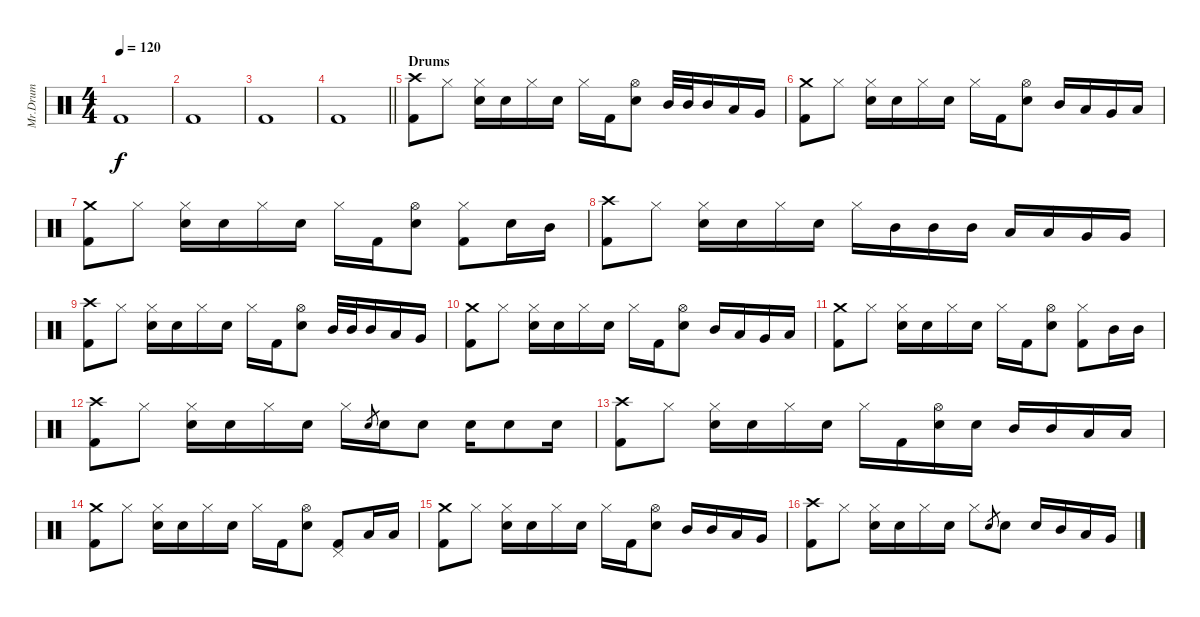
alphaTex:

\track ("Mr.Drum" "Mr.Drum") {instrument percussion}
\staff {score}
\articulation defaults
\ts (4 4)
\tempo 120
\clef neutral
\ks c "Kick (hit) 2".1{dy f}
|
"Kick (hit) 2".1 |
"Kick (hit) 2".1 |
\barLineRight lightlight "Kick (hit) 2".1
|
\section ("" "Drums")
("Crash high (hit)" "Kick (hit) 2").8 "Hi-Hat (closed)".8 ("Hi-Hat (closed)" "Electric Snare (hit)").16 "Electric Snare (hit)".16 "Hi-Hat (closed)".16 "Electric Snare (hit)".16 "Hi-Hat (closed)".16 "Kick (hit) 2".16 ("Hi-Hat (open)" "Electric Snare (hit)").8 "Mid Tom (hit)".32 "Mid Tom (hit)".32 "Mid Tom (hit)".16 "Low Tom (hit)".16 "Very Low Tom (hit)".16 |
("Crash medium (hit)" "Kick (hit) 2").8 "Hi-Hat (closed)".8 ("Hi-Hat (closed)" "Electric Snare (hit)").16 "Electric Snare (hit)".16 "Hi-Hat (closed)".16 "Electric Snare (hit)".16 "Hi-Hat (closed)".16 "Kick (hit) 2".16 ("Hi-Hat (open)" "Electric Snare (hit)").8 "Mid Tom (hit)".16 "Low Tom (hit)".16 "Very Low Tom (hit)".16 "Low Floor Tom (hit)".16 |
("Crash medium (hit)" "Kick (hit) 2").8 "Hi-Hat (closed)".8 ("Hi-Hat (closed)" "Electric Snare (hit)").16 "Electric Snare (hit)".16 "Hi-Hat (closed)".16 "Electric Snare (hit)".16 "Hi-Hat (closed)".16 "Kick (hit) 2".16 ("Hi-Hat (open)" "Electric Snare (hit)").8 ("Hi-Hat (closed)" "Kick (hit) 2").8 "Electric Snare (hit)".16 "Mid Tom (hit)".16 |
("Crash high (hit)" "Kick (hit) 2").8 "Hi-Hat (closed)".8 ("Hi-Hat (closed)" "Electric Snare (hit)").16 "Electric Snare (hit)".16 "Hi-Hat (closed)".16 "Electric Snare (hit)".16 "Hi-Hat (closed)".16 "Mid Tom (hit)".16 "Mid Tom (hit)".16 "Mid Tom (hit)".16 "Low Tom (hit)".16 "Low Tom (hit)".16 "Very Low Tom (hit)".16 "Very Low Tom (hit)".16 |
("Crash high (hit)" "Kick (hit) 2").8 "Hi-Hat (closed)".8 ("Hi-Hat (closed)" "Electric Snare (hit)").16 "Electric Snare (hit)".16 "Hi-Hat (closed)".16 "Electric Snare (hit)".16 "Hi-Hat (closed)".16 "Kick (hit) 2".16 ("Hi-Hat (open)" "Electric Snare (hit)").8 "Mid Tom (hit)".32 "Mid Tom (hit)".32 "Mid Tom (hit)".16 "Low Tom (hit)".16 "Very Low Tom (hit)".16 |
("Crash medium (hit)" "Kick (hit) 2").8 "Hi-Hat (closed)".8 ("Hi-Hat (closed)" "Electric Snare (hit)").16 "Electric Snare (hit)".16 "Hi-Hat (closed)".16 "Electric Snare (hit)".16 "Hi-Hat (closed)".16 "Kick (hit) 2".16 ("Hi-Hat (open)" "Electric Snare (hit)").8 "Mid Tom (hit)".16 "Low Tom (hit)".16 "Very Low Tom (hit)".16 "Low Floor Tom (hit)".16 |
("Crash medium (hit)" "Kick (hit) 2").8 "Hi-Hat (closed)".8 ("Hi-Hat (closed)" "Electric Snare (hit)").16 "Electric Snare (hit)".16 "Hi-Hat (closed)".16 "Electric Snare (hit)".16 "Hi-Hat (closed)".16 "Kick (hit) 2".16 ("Hi-Hat (open)" "Electric Snare (hit)").8 ("Hi-Hat (closed)" "Kick (hit) 2").8 "Mid Tom (hit)".16 "Mid Tom (hit)".16 |
("Crash high (hit)" "Kick (hit) 2").8 "Hi-Hat (closed)".8 ("Hi-Hat (closed)" "Electric Snare (hit)").16 "Electric Snare (hit)".16 "Hi-Hat (closed)".16 "Electric Snare (hit)".16 "Hi-Hat (closed)".16 "Electric Snare (hit)".8{gr} "Electric Snare (hit)".16 "Electric Snare (hit)".8 "Electric Snare (hit)".16 "Electric Snare (hit)".8 "Electric Snare (hit)".16 |
("Crash high (hit)" "Kick (hit) 2").8 "Hi-Hat (closed)".8 ("Hi-Hat (closed)" "Electric Snare (hit)").16 "Electric Snare (hit)".16 "Hi-Hat (closed)".16 "Electric Snare (hit)".16 "Hi-Hat (closed)".16 "Kick (hit) 2".16 ("Hi-Hat (open)" "Electric Snare (hit)").16 "Electric Snare (hit)".16 "Mid Tom (hit)".16 "Mid Tom (hit)".16 "Low Tom (hit)".16 "Low Tom (hit)".16 |
("Crash medium (hit)" "Kick (hit) 2").8 "Hi-Hat (closed)".8 ("Hi-Hat (closed)" "Electric Snare (hit)").16 "Electric Snare (hit)".16 "Hi-Hat (closed)".16 "Electric Snare (hit)".16 "Hi-Hat (closed)".16 "Kick (hit) 2".16 ("Hi-Hat (open)" "Electric Snare (hit)").8 ("Pedal Hi-Hat (hit)" "Kick (hit) 2").8 "Low Floor Tom (hit)".16 "Low Floor Tom (hit)".16 |
("Crash medium (hit)" "Kick (hit) 2").8 "Hi-Hat (closed)".8 ("Hi-Hat (closed)" "Electric Snare (hit)").16 "Electric Snare (hit)".16 "Hi-Hat (closed)".16 "Electric Snare (hit)".16 "Hi-Hat (closed)".16 "Kick (hit) 2".16 ("Hi-Hat (open)" "Electric Snare (hit)").8 "Mid Tom (hit)".16 "Mid Tom (hit)".16 "Low Tom (hit)".16 "Very Low Tom (hit)".16 |
("Crash high (hit)" "Kick (hit) 2").8 "Hi-Hat (closed)".8 ("Hi-Hat (closed)" "Electric Snare (hit)").16 "Electric Snare (hit)".16 "Hi-Hat (closed)".16 "Electric Snare (hit)".16 "Hi-Hat (closed)".8 "Electric Snare (hit)".8{gr} "Electric Snare (hit)".8 "Electric Snare (hit)".16 "Mid Tom (hit)".16 "Low Tom (hit)".16 "Very Low Tom (hit)".16
